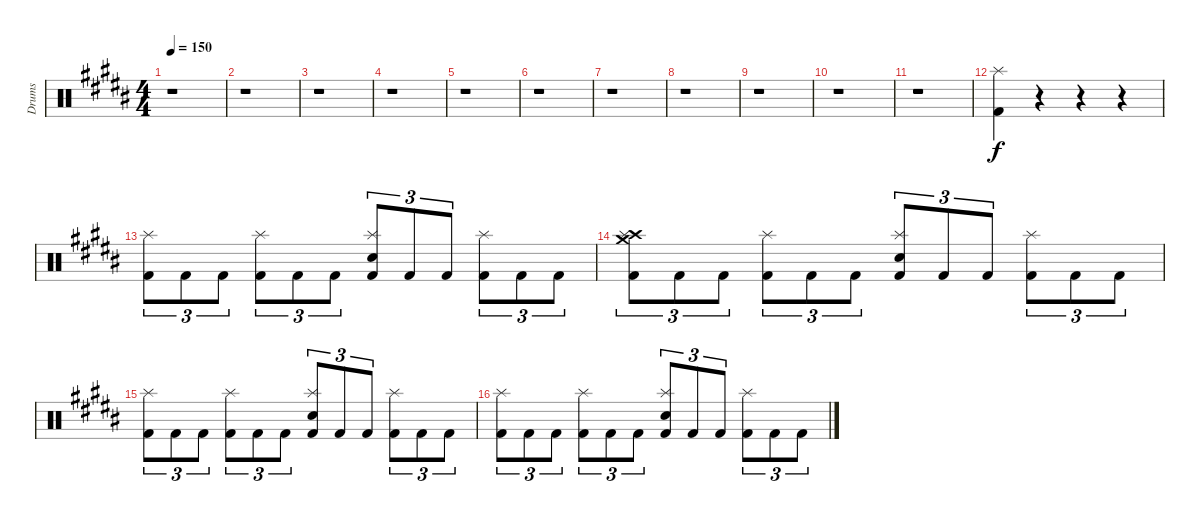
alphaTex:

\track ("Drums" "Drums") {instrument percussion}
\staff {score}
\articulation defaults
\ts (4 4)
\tempo 150
\clef neutral
\ks b
r.1{dy f} |
r.1 |
r.1 |
r.1 |
r.1 |
r.1 |
r.1 |
r.1 |
r.1 |
r.1 |
r.1 |
("Kick (hit) 2" "Splash (hit)").4 r.4 r.4 r.4 |
("Kick (hit) 2" "Splash (hit)").8{tu (3 2)} "Kick (hit) 2".8{tu (3 2)} "Kick (hit) 2".8{tu (3 2)} ("Kick (hit) 2" "Splash (hit)").8{tu (3 2)} "Kick (hit) 2".8{tu (3 2)} "Kick (hit) 2".8{tu (3 2)} ("Kick (hit) 2" "Snare (hit) 2" "Splash (hit)").8{tu (3 2)} "Kick (hit) 2".8{tu (3 2)} "Kick (hit) 2".8{tu (3 2)} ("Kick (hit) 2" "Splash (hit)").8{tu (3 2)} "Kick (hit) 2".8{tu (3 2)} "Kick (hit) 2".8{tu (3 2)} |
("Kick (hit) 2" "Crash high (hit)" "Crash medium (hit)" "Splash (hit)").8{tu (3 2)} "Kick (hit) 2".8{tu (3 2)} "Kick (hit) 2".8{tu (3 2)} ("Kick (hit) 2" "Splash (hit)").8{tu (3 2)} "Kick (hit) 2".8{tu (3 2)} "Kick (hit) 2".8{tu (3 2)} ("Kick (hit) 2" "Snare (hit) 2" "Splash (hit)").8{tu (3 2)} "Kick (hit) 2".8{tu (3 2)} "Kick (hit) 2".8{tu (3 2)} ("Kick (hit) 2" "Splash (hit)").8{tu (3 2)} "Kick (hit) 2".8{tu (3 2)} "Kick (hit) 2".8{tu (3 2)} |
("Kick (hit) 2" "Splash (hit)").8{tu (3 2)} "Kick (hit) 2".8{tu (3 2)} "Kick (hit) 2".8{tu (3 2)} ("Kick (hit) 2" "Splash (hit)").8{tu (3 2)} "Kick (hit) 2".8{tu (3 2)} "Kick (hit) 2".8{tu (3 2)} ("Kick (hit) 2" "Snare (hit) 2" "Splash (hit)").8{tu (3 2)} "Kick (hit) 2".8{tu (3 2)} "Kick (hit) 2".8{tu (3 2)} ("Kick (hit) 2" "Splash (hit)").8{tu (3 2)} "Kick (hit) 2".8{tu (3 2)} "Kick (hit) 2".8{tu (3 2)} |
("Kick (hit) 2" "Splash (hit)").8{tu (3 2)} "Kick (hit) 2".8{tu (3 2)} "Kick (hit) 2".8{tu (3 2)} ("Kick (hit) 2" "Splash (hit)").8{tu (3 2)} "Kick (hit) 2".8{tu (3 2)} "Kick (hit) 2".8{tu (3 2)} ("Kick (hit) 2" "Snare (hit) 2" "Splash (hit)").8{tu (3 2)} "Kick (hit) 2".8{tu (3 2)} "Kick (hit) 2".8{tu (3 2)} ("Kick (hit) 2" "Splash (hit)").8{tu (3 2)} "Kick (hit) 2".8{tu (3 2)} "Kick (hit) 2".8{tu (3 2)}
